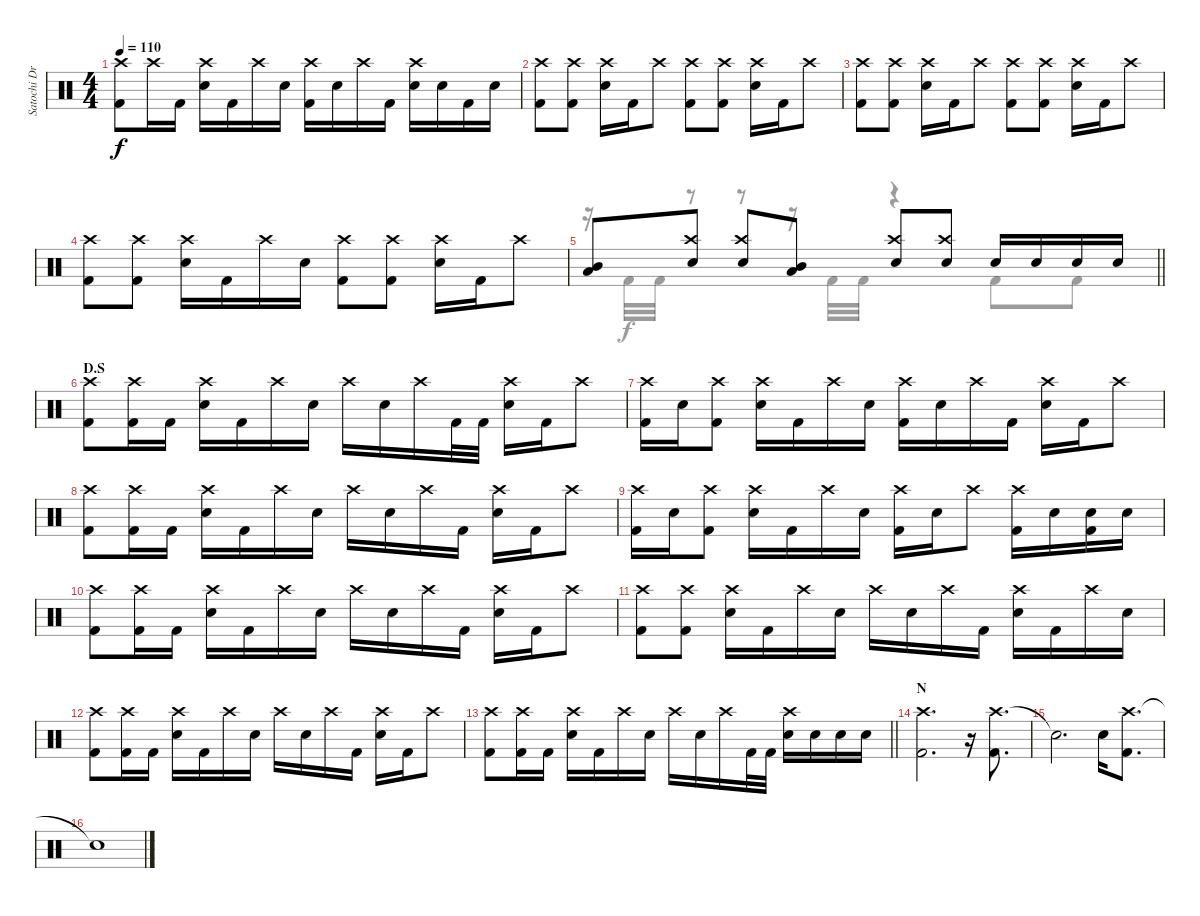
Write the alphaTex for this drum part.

\track ("Satochi Drums" "Satochi Dr") {instrument percussion}
\staff {score}
\articulation defaults
\voice
\ts (4 4)
\tempo 110
\clef neutral
\ks c
("Crash high (hit)" "Kick (hit) 2").8{dy f} "Crash high (hit)".16 "Kick (hit) 2".16 ("Crash high (hit)" "Snare (hit) 2").16 "Kick (hit) 2".16 "Crash high (hit)".16 "Snare (hit) 2".16 ("Crash high (hit)" "Kick (hit) 2").16 "Snare (hit) 2".16 "Crash high (hit)".16 "Kick (hit) 2".16 ("Crash high (hit)" "Snare (hit) 2").16 "Snare (hit) 2".16 "Kick (hit) 2".16 "Snare (hit) 2".16 |
("Crash high (hit)" "Kick (hit) 2").8 ("Crash high (hit)" "Kick (hit) 2").8 ("Crash high (hit)" "Snare (hit) 2").16 "Kick (hit) 2".16 "Crash high (hit)".8 ("Crash high (hit)" "Kick (hit) 2").8 ("Crash high (hit)" "Kick (hit) 2").8 ("Crash high (hit)" "Snare (hit) 2").16 "Kick (hit) 2".16 "Crash high (hit)".8 |
("Crash high (hit)" "Kick (hit) 2").8 ("Crash high (hit)" "Kick (hit) 2").8 ("Crash high (hit)" "Snare (hit) 2").16 "Kick (hit) 2".16 "Crash high (hit)".8 ("Crash high (hit)" "Kick (hit) 2").8 ("Crash high (hit)" "Kick (hit) 2").8 ("Crash high (hit)" "Snare (hit) 2").16 "Kick (hit) 2".16 "Crash high (hit)".8 |
("Crash high (hit)" "Kick (hit) 2").8 ("Crash high (hit)" "Kick (hit) 2").8 ("Crash high (hit)" "Snare (hit) 2").16 "Kick (hit) 2".16 "Crash high (hit)".16 "Snare (hit) 2".16 ("Crash high (hit)" "Kick (hit) 2").8 ("Crash high (hit)" "Kick (hit) 2").8 ("Crash high (hit)" "Snare (hit) 2").16 "Kick (hit) 2".16 "Crash high (hit)".8 |
\barLineRight lightlight
("Mid Tom (hit)" "Low Floor Tom (hit)").8 ("Crash high (hit)" "Snare (hit) 2").8 ("Crash high (hit)" "Snare (hit) 2").8 ("Mid Tom (hit)" "Low Floor Tom (hit)").8 ("Crash high (hit)" "Snare (hit) 2").8 ("Crash high (hit)" "Snare (hit) 2").8 "Snare (hit) 2".16 "Snare (hit) 2".16 "Snare (hit) 2".16 "Snare (hit) 2".16 |
\section ("" "D.S")
("Crash high (hit)" "Kick (hit) 2").8 ("Crash high (hit)" "Kick (hit) 2").16 "Kick (hit) 2".16 ("Crash high (hit)" "Snare (hit) 2").16 "Kick (hit) 2".16 "Crash high (hit)".16 "Snare (hit) 2".16 "Crash high (hit)".16 "Snare (hit) 2".16 "Crash high (hit)".16 "Kick (hit) 2".32 "Kick (hit) 2".32 ("Crash high (hit)" "Snare (hit) 2").16 "Kick (hit) 2".16 "Crash high (hit)".8 |
("Crash high (hit)" "Kick (hit) 2").16 "Snare (hit) 2".16 ("Crash high (hit)" "Kick (hit) 2").8 ("Crash high (hit)" "Snare (hit) 2").16 "Kick (hit) 2".16 "Crash high (hit)".16 "Snare (hit) 2".16 ("Crash high (hit)" "Kick (hit) 2").16 "Snare (hit) 2".16 "Crash high (hit)".16 "Kick (hit) 2".16 ("Crash high (hit)" "Snare (hit) 2").16 "Kick (hit) 2".16 "Crash high (hit)".8 |
("Crash high (hit)" "Kick (hit) 2").8 ("Crash high (hit)" "Kick (hit) 2").16 "Kick (hit) 2".16 ("Crash high (hit)" "Snare (hit) 2").16 "Kick (hit) 2".16 "Crash high (hit)".16 "Snare (hit) 2".16 "Crash high (hit)".16 "Snare (hit) 2".16 "Crash high (hit)".16 "Kick (hit) 2".16 ("Crash high (hit)" "Snare (hit) 2").16 "Kick (hit) 2".16 "Crash high (hit)".8 |
("Crash high (hit)" "Kick (hit) 2").16 "Snare (hit) 2".16 ("Crash high (hit)" "Kick (hit) 2").8 ("Crash high (hit)" "Snare (hit) 2").16 "Kick (hit) 2".16 "Crash high (hit)".16 "Snare (hit) 2".16 ("Crash high (hit)" "Kick (hit) 2").16 "Snare (hit) 2".16 "Crash high (hit)".8 ("Crash high (hit)" "Kick (hit) 2").16 "Snare (hit) 2".16 ("Snare (hit) 2" "Kick (hit) 2").16 "Snare (hit) 2".16 |
("Crash high (hit)" "Kick (hit) 2").8 ("Crash high (hit)" "Kick (hit) 2").16 "Kick (hit) 2".16 ("Crash high (hit)" "Snare (hit) 2").16 "Kick (hit) 2".16 "Crash high (hit)".16 "Snare (hit) 2".16 "Crash high (hit)".16 "Snare (hit) 2".16 "Crash high (hit)".16 "Kick (hit) 2".16 ("Crash high (hit)" "Snare (hit) 2").16 "Kick (hit) 2".16 "Crash high (hit)".8 |
("Crash high (hit)" "Kick (hit) 2").8 ("Crash high (hit)" "Kick (hit) 2").8 ("Crash high (hit)" "Snare (hit) 2").16 "Kick (hit) 2".16 "Crash high (hit)".16 "Snare (hit) 2".16 "Crash high (hit)".16 "Snare (hit) 2".16 "Crash high (hit)".16 "Kick (hit) 2".16 ("Crash high (hit)" "Snare (hit) 2").16 "Kick (hit) 2".16 "Crash high (hit)".16 "Snare (hit) 2".16 |
("Crash high (hit)" "Kick (hit) 2").8 ("Crash high (hit)" "Kick (hit) 2").16 "Kick (hit) 2".16 ("Crash high (hit)" "Snare (hit) 2").16 "Kick (hit) 2".16 "Crash high (hit)".16 "Snare (hit) 2".16 "Crash high (hit)".16 "Snare (hit) 2".16 "Crash high (hit)".16 "Kick (hit) 2".16 ("Crash high (hit)" "Snare (hit) 2").16 "Kick (hit) 2".16 "Crash high (hit)".8 |
\barLineRight lightlight
("Crash high (hit)" "Kick (hit) 2").8 ("Crash high (hit)" "Kick (hit) 2").16 "Kick (hit) 2".16 ("Crash high (hit)" "Snare (hit) 2").16 "Kick (hit) 2".16 "Crash high (hit)".16 "Snare (hit) 2".16 "Crash high (hit)".16 "Snare (hit) 2".16 "Crash high (hit)".16 "Kick (hit) 2".32 "Kick (hit) 2".32 ("Crash high (hit)" "Snare (hit) 2").16 "Snare (hit) 2".16 "Snare (hit) 2".16 "Snare (hit) 2".16 |
\section ("" "N")
("Crash high (hit)" "Kick (hit) 2").2{d} r.16 ("Crash high (hit)" "Kick (hit) 2").8{d} |
"Snare (hit)"{t}.2{d} "Snare (hit) 2".16 ("Crash high (hit)" "Kick (hit) 2").8{d} |
"Snare (hit)"{t}.1
\voice
\clef neutral
\ottava regular
\simile none
\ks c
|
|
|
|
\barLineRight lightlight
r.16 "Kick (hit) 2".32 "Kick (hit) 2".32 r.8 r.8 r.16 "Kick (hit) 2".32 "Kick (hit) 2".32 r.4 "Kick (hit) 2".8 "Kick (hit) 2".8 |
|
|
|
|
|
|
|
\barLineRight lightlight
|
|
|
